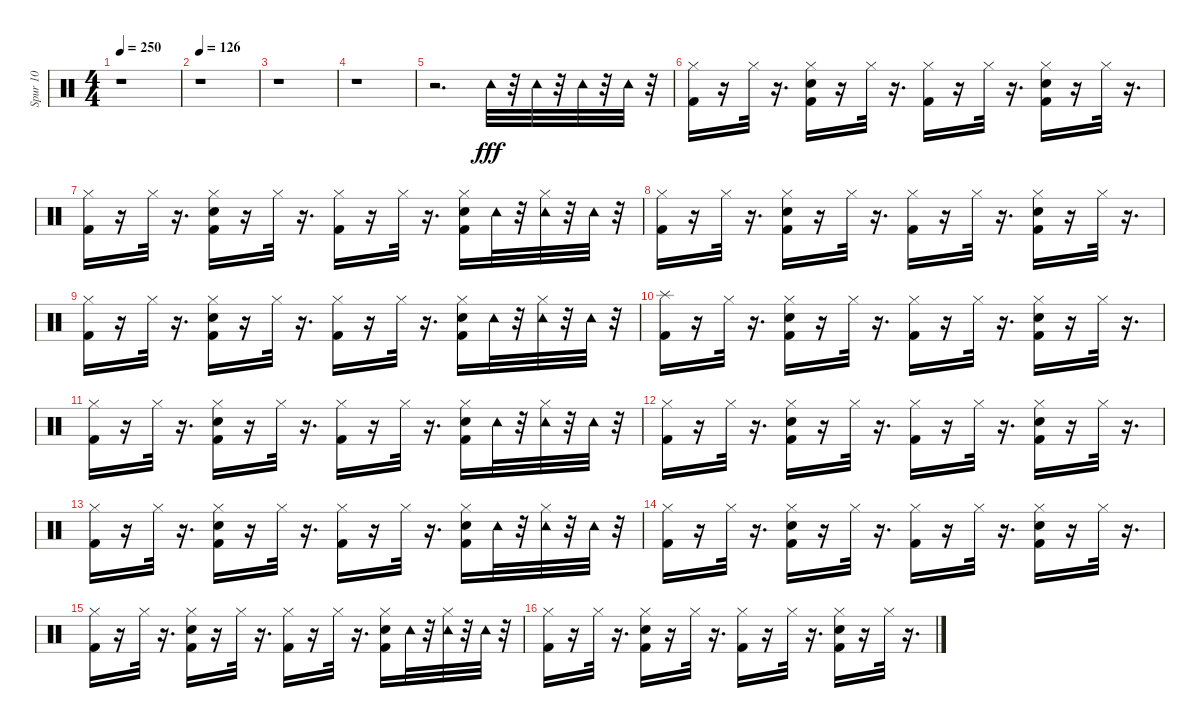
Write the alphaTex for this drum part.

\track ("Spur 10" "Spur 10") {instrument percussion}
\staff {score}
\articulation defaults
\ts (4 4)
\tempo 250
\clef neutral
\ks c
r.1{dy fff} |
\tempo 126
r.1 |
r.1 |
r.1 |
r.2{d} "Tambourine (hit)".32 r.32 "Tambourine (hit)".32 r.32 "Tambourine (hit)".32 r.32 "Tambourine (hit)".32 r.32 |
("Hi-Hat (closed)" "Kick (hit) 2").16 r.16 "Hi-Hat (closed)".32 r.16{d} ("Hi-Hat (closed)" "Kick (hit) 2" "Snare (hit) 2").16 r.16 "Hi-Hat (closed)".32 r.16{d} ("Hi-Hat (closed)" "Kick (hit) 2").16 r.16 "Hi-Hat (closed)".32 r.16{d} ("Hi-Hat (closed)" "Snare (hit) 2" "Kick (hit) 2").16 r.16 "Hi-Hat (closed)".32 r.16{d} |
("Hi-Hat (closed)" "Kick (hit) 2").16 r.16 "Hi-Hat (closed)".32 r.16{d} ("Hi-Hat (closed)" "Snare (hit) 2" "Kick (hit) 2").16 r.16 "Hi-Hat (closed)".32 r.16{d} ("Hi-Hat (closed)" "Kick (hit) 2").16 r.16 "Hi-Hat (closed)".32 r.16{d} ("Hi-Hat (closed)" "Snare (hit) 2" "Kick (hit) 2").16 "Tambourine (hit)".32 r.32 ("Hi-Hat (closed)" "Tambourine (hit)").32 r.32 "Tambourine (hit)".32 r.32 |
("Hi-Hat (closed)" "Kick (hit) 2").16 r.16 "Hi-Hat (closed)".32 r.16{d} ("Hi-Hat (closed)" "Kick (hit) 2" "Snare (hit) 2").16 r.16 "Hi-Hat (closed)".32 r.16{d} ("Hi-Hat (closed)" "Kick (hit) 2").16 r.16 "Hi-Hat (closed)".32 r.16{d} ("Hi-Hat (closed)" "Snare (hit) 2" "Kick (hit) 2").16 r.16 "Hi-Hat (closed)".32 r.16{d} |
("Hi-Hat (closed)" "Kick (hit) 2").16 r.16 "Hi-Hat (closed)".32 r.16{d} ("Hi-Hat (closed)" "Snare (hit) 2" "Kick (hit) 2").16 r.16 "Hi-Hat (closed)".32 r.16{d} ("Hi-Hat (closed)" "Kick (hit) 2").16 r.16 "Hi-Hat (closed)".32 r.16{d} ("Hi-Hat (closed)" "Snare (hit) 2" "Kick (hit) 2").16 "Tambourine (hit)".32 r.32 ("Hi-Hat (closed)" "Tambourine (hit)").32 r.32 "Tambourine (hit)".32 r.32 |
("Splash (hit)" "Kick (hit) 2").16 r.16 "Hi-Hat (closed)".32 r.16{d} ("Hi-Hat (closed)" "Kick (hit) 2" "Snare (hit) 2").16 r.16 "Hi-Hat (closed)".32 r.16{d} ("Hi-Hat (closed)" "Kick (hit) 2").16 r.16 "Hi-Hat (closed)".32 r.16{d} ("Hi-Hat (closed)" "Snare (hit) 2" "Kick (hit) 2").16 r.16 "Hi-Hat (closed)".32 r.16{d} |
("Hi-Hat (closed)" "Kick (hit) 2").16 r.16 "Hi-Hat (closed)".32 r.16{d} ("Hi-Hat (closed)" "Snare (hit) 2" "Kick (hit) 2").16 r.16 "Hi-Hat (closed)".32 r.16{d} ("Hi-Hat (closed)" "Kick (hit) 2").16 r.16 "Hi-Hat (closed)".32 r.16{d} ("Hi-Hat (closed)" "Snare (hit) 2" "Kick (hit) 2").16 "Tambourine (hit)".32 r.32 ("Hi-Hat (closed)" "Tambourine (hit)").32 r.32 "Tambourine (hit)".32 r.32 |
("Hi-Hat (closed)" "Kick (hit) 2").16 r.16 "Hi-Hat (closed)".32 r.16{d} ("Hi-Hat (closed)" "Kick (hit) 2" "Snare (hit) 2").16 r.16 "Hi-Hat (closed)".32 r.16{d} ("Hi-Hat (closed)" "Kick (hit) 2").16 r.16 "Hi-Hat (closed)".32 r.16{d} ("Hi-Hat (closed)" "Snare (hit) 2" "Kick (hit) 2").16 r.16 "Hi-Hat (closed)".32 r.16{d} |
("Hi-Hat (closed)" "Kick (hit) 2").16 r.16 "Hi-Hat (closed)".32 r.16{d} ("Hi-Hat (closed)" "Snare (hit) 2" "Kick (hit) 2").16 r.16 "Hi-Hat (closed)".32 r.16{d} ("Hi-Hat (closed)" "Kick (hit) 2").16 r.16 "Hi-Hat (closed)".32 r.16{d} ("Hi-Hat (closed)" "Snare (hit) 2" "Kick (hit) 2").16 "Tambourine (hit)".32 r.32 ("Hi-Hat (closed)" "Tambourine (hit)").32 r.32 "Tambourine (hit)".32 r.32 |
("Hi-Hat (closed)" "Kick (hit) 2").16 r.16 "Hi-Hat (closed)".32 r.16{d} ("Hi-Hat (closed)" "Kick (hit) 2" "Snare (hit) 2").16 r.16 "Hi-Hat (closed)".32 r.16{d} ("Hi-Hat (closed)" "Kick (hit) 2").16 r.16 "Hi-Hat (closed)".32 r.16{d} ("Hi-Hat (closed)" "Snare (hit) 2" "Kick (hit) 2").16 r.16 "Hi-Hat (closed)".32 r.16{d} |
("Hi-Hat (closed)" "Kick (hit) 2").16 r.16 "Hi-Hat (closed)".32 r.16{d} ("Hi-Hat (closed)" "Snare (hit) 2" "Kick (hit) 2").16 r.16 "Hi-Hat (closed)".32 r.16{d} ("Hi-Hat (closed)" "Kick (hit) 2").16 r.16 "Hi-Hat (closed)".32 r.16{d} ("Hi-Hat (closed)" "Snare (hit) 2" "Kick (hit) 2").16 "Tambourine (hit)".32 r.32 ("Hi-Hat (closed)" "Tambourine (hit)").32 r.32 "Tambourine (hit)".32 r.32 |
("Hi-Hat (closed)" "Kick (hit) 2").16 r.16 "Hi-Hat (closed)".32 r.16{d} ("Hi-Hat (closed)" "Kick (hit) 2" "Snare (hit) 2").16 r.16 "Hi-Hat (closed)".32 r.16{d} ("Hi-Hat (closed)" "Kick (hit) 2").16 r.16 "Hi-Hat (closed)".32 r.16{d} ("Hi-Hat (closed)" "Snare (hit) 2" "Kick (hit) 2").16 r.16 "Hi-Hat (closed)".32 r.16{d}
